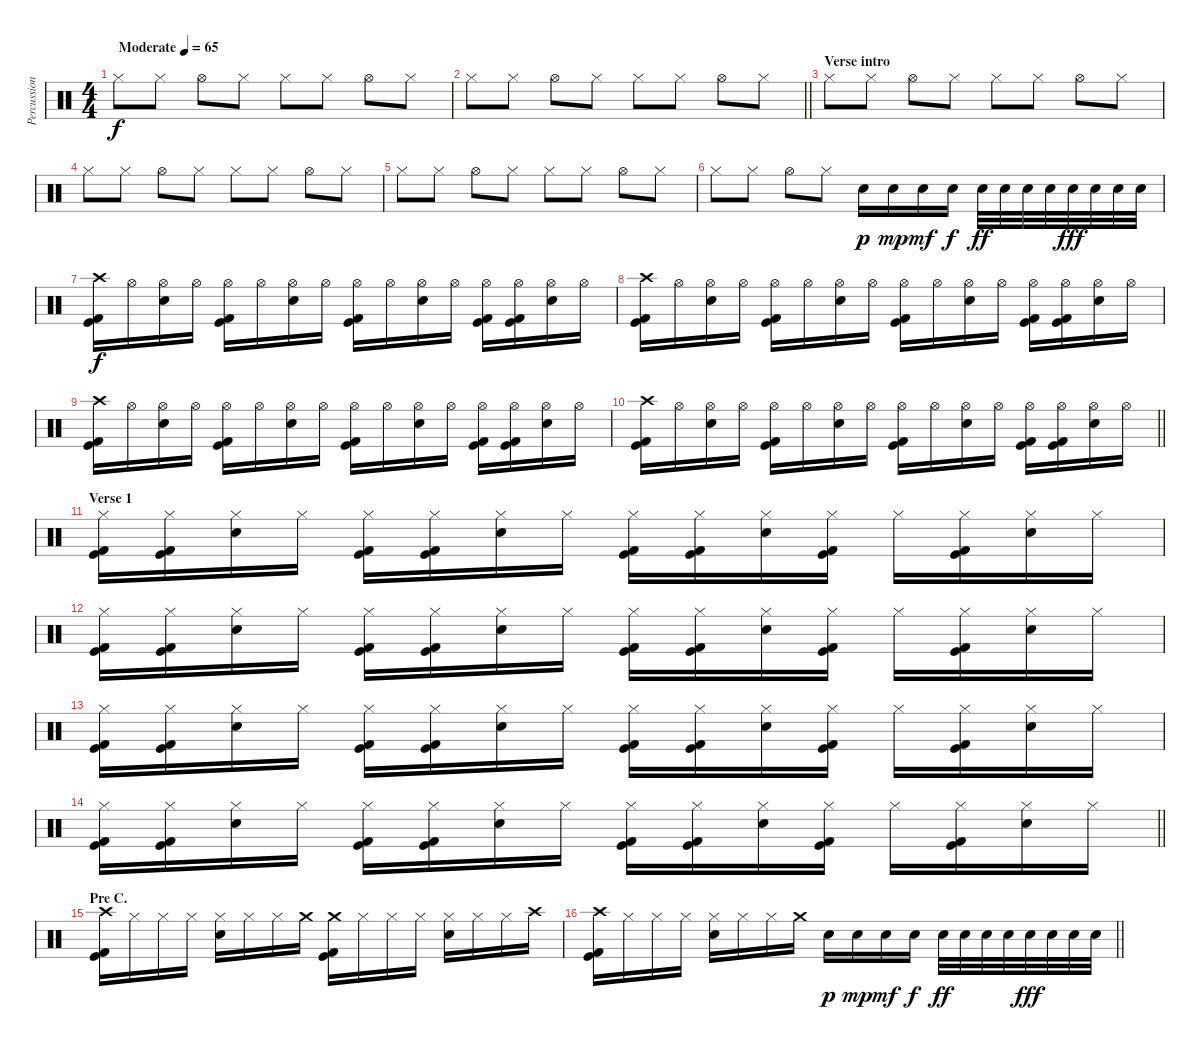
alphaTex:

\track ("Percussioni" "Percussion") {instrument percussion}
\staff {score}
\articulation defaults
\ts (4 4)
\tempo (65 "Moderate")
\clef neutral
\ks c "Hi-Hat (closed)".8{dy f} "Hi-Hat (closed)".8 "Hi-Hat (open)".8 "Hi-Hat (closed)".8 "Hi-Hat (closed)".8 "Hi-Hat (closed)".8 "Hi-Hat (open)".8 "Hi-Hat (closed)".8
|
\barLineRight lightlight "Hi-Hat (closed)".8 "Hi-Hat (closed)".8 "Hi-Hat (open)".8 "Hi-Hat (closed)".8 "Hi-Hat (closed)".8 "Hi-Hat (closed)".8 "Hi-Hat (open)".8 "Hi-Hat (closed)".8
|
\section ("" "Verse intro")
"Hi-Hat (closed)".8 "Hi-Hat (closed)".8 "Hi-Hat (open)".8 "Hi-Hat (closed)".8 "Hi-Hat (closed)".8 "Hi-Hat (closed)".8 "Hi-Hat (open)".8 "Hi-Hat (closed)".8 |
"Hi-Hat (closed)".8 "Hi-Hat (closed)".8 "Hi-Hat (open)".8 "Hi-Hat (closed)".8 "Hi-Hat (closed)".8 "Hi-Hat (closed)".8 "Hi-Hat (open)".8 "Hi-Hat (closed)".8 |
"Hi-Hat (closed)".8 "Hi-Hat (closed)".8 "Hi-Hat (open)".8 "Hi-Hat (closed)".8 "Hi-Hat (closed)".8 "Hi-Hat (closed)".8 "Hi-Hat (open)".8 "Hi-Hat (closed)".8 |
"Hi-Hat (closed)".8 "Hi-Hat (closed)".8 "Hi-Hat (open)".8 "Hi-Hat (closed)".8 "Snare (hit) 2".16{dy p} "Snare (hit) 2".16{dy mp} "Snare (hit) 2".16{dy mf} "Snare (hit) 2".16{dy f} "Snare (hit) 2".32{dy ff} "Snare (hit) 2".32 "Snare (hit) 2".32 "Snare (hit) 2".32 "Snare (hit) 2".32{dy fff} "Snare (hit) 2".32 "Snare (hit) 2".32 "Snare (hit) 2".32 |
("Crash high (hit)" "Kick (hit) 2" "Kick (hit)").16{dy f} "Hi-Hat (open)".16 ("Hi-Hat (open)" "Snare (hit) 2").16 "Hi-Hat (open)".16 ("Hi-Hat (open)" "Kick (hit) 2" "Kick (hit)").16 "Hi-Hat (open)".16 ("Hi-Hat (open)" "Snare (hit) 2").16 "Hi-Hat (open)".16 ("Hi-Hat (open)" "Kick (hit) 2" "Kick (hit)").16 "Hi-Hat (open)".16 ("Hi-Hat (open)" "Snare (hit) 2").16 "Hi-Hat (open)".16 ("Hi-Hat (open)" "Kick (hit) 2" "Kick (hit)").16 ("Hi-Hat (open)" "Kick (hit) 2" "Kick (hit)").16 ("Hi-Hat (open)" "Snare (hit) 2").16 "Hi-Hat (open)".16 |
("Crash high (hit)" "Kick (hit) 2" "Kick (hit)").16 "Hi-Hat (open)".16 ("Hi-Hat (open)" "Snare (hit) 2").16 "Hi-Hat (open)".16 ("Hi-Hat (open)" "Kick (hit) 2" "Kick (hit)").16 "Hi-Hat (open)".16 ("Hi-Hat (open)" "Snare (hit) 2").16 "Hi-Hat (open)".16 ("Hi-Hat (open)" "Kick (hit) 2" "Kick (hit)").16 "Hi-Hat (open)".16 ("Hi-Hat (open)" "Snare (hit) 2").16 "Hi-Hat (open)".16 ("Hi-Hat (open)" "Kick (hit) 2" "Kick (hit)").16 ("Hi-Hat (open)" "Kick (hit) 2" "Kick (hit)").16 ("Hi-Hat (open)" "Snare (hit) 2").16 "Hi-Hat (open)".16 |
("Crash high (hit)" "Kick (hit) 2" "Kick (hit)").16 "Hi-Hat (open)".16 ("Hi-Hat (open)" "Snare (hit) 2").16 "Hi-Hat (open)".16 ("Hi-Hat (open)" "Kick (hit) 2" "Kick (hit)").16 "Hi-Hat (open)".16 ("Hi-Hat (open)" "Snare (hit) 2").16 "Hi-Hat (open)".16 ("Hi-Hat (open)" "Kick (hit) 2" "Kick (hit)").16 "Hi-Hat (open)".16 ("Hi-Hat (open)" "Snare (hit) 2").16 "Hi-Hat (open)".16 ("Hi-Hat (open)" "Kick (hit) 2" "Kick (hit)").16 ("Hi-Hat (open)" "Kick (hit) 2" "Kick (hit)").16 ("Hi-Hat (open)" "Snare (hit) 2").16 "Hi-Hat (open)".16 |
\barLineRight lightlight
("Crash high (hit)" "Kick (hit) 2" "Kick (hit)").16 "Hi-Hat (open)".16 ("Hi-Hat (open)" "Snare (hit) 2").16 "Hi-Hat (open)".16 ("Hi-Hat (open)" "Kick (hit) 2" "Kick (hit)").16 "Hi-Hat (open)".16 ("Hi-Hat (open)" "Snare (hit) 2").16 "Hi-Hat (open)".16 ("Hi-Hat (open)" "Kick (hit) 2" "Kick (hit)").16 "Hi-Hat (open)".16 ("Hi-Hat (open)" "Snare (hit) 2").16 "Hi-Hat (open)".16 ("Hi-Hat (open)" "Kick (hit) 2" "Kick (hit)").16 ("Hi-Hat (open)" "Kick (hit) 2" "Kick (hit)").16 ("Hi-Hat (open)" "Snare (hit) 2").16 "Hi-Hat (open)".16 |
\section ("" "Verse 1")
("Hi-Hat (closed)" "Kick (hit) 2" "Kick (hit)").16 ("Hi-Hat (closed)" "Kick (hit) 2" "Kick (hit)").16 ("Hi-Hat (closed)" "Snare (hit) 2").16 "Hi-Hat (closed)".16 ("Hi-Hat (closed)" "Kick (hit) 2" "Kick (hit)").16 ("Hi-Hat (closed)" "Kick (hit) 2" "Kick (hit)").16 ("Hi-Hat (closed)" "Snare (hit) 2").16 "Hi-Hat (closed)".16 ("Hi-Hat (closed)" "Kick (hit) 2" "Kick (hit)").16 ("Hi-Hat (closed)" "Kick (hit) 2" "Kick (hit)").16 ("Hi-Hat (closed)" "Snare (hit) 2").16 ("Hi-Hat (closed)" "Kick (hit) 2" "Kick (hit)").16 "Hi-Hat (closed)".16 ("Hi-Hat (closed)" "Kick (hit) 2" "Kick (hit)").16 ("Hi-Hat (closed)" "Snare (hit) 2").16 "Hi-Hat (closed)".16 |
("Hi-Hat (closed)" "Kick (hit) 2" "Kick (hit)").16 ("Hi-Hat (closed)" "Kick (hit) 2" "Kick (hit)").16 ("Hi-Hat (closed)" "Snare (hit) 2").16 "Hi-Hat (closed)".16 ("Hi-Hat (closed)" "Kick (hit) 2" "Kick (hit)").16 ("Hi-Hat (closed)" "Kick (hit) 2" "Kick (hit)").16 ("Hi-Hat (closed)" "Snare (hit) 2").16 "Hi-Hat (closed)".16 ("Hi-Hat (closed)" "Kick (hit) 2" "Kick (hit)").16 ("Hi-Hat (closed)" "Kick (hit) 2" "Kick (hit)").16 ("Hi-Hat (closed)" "Snare (hit) 2").16 ("Hi-Hat (closed)" "Kick (hit) 2" "Kick (hit)").16 "Hi-Hat (closed)".16 ("Hi-Hat (closed)" "Kick (hit) 2" "Kick (hit)").16 ("Hi-Hat (closed)" "Snare (hit) 2").16 "Hi-Hat (closed)".16 |
("Hi-Hat (closed)" "Kick (hit) 2" "Kick (hit)").16 ("Hi-Hat (closed)" "Kick (hit) 2" "Kick (hit)").16 ("Hi-Hat (closed)" "Snare (hit) 2").16 "Hi-Hat (closed)".16 ("Hi-Hat (closed)" "Kick (hit) 2" "Kick (hit)").16 ("Hi-Hat (closed)" "Kick (hit) 2" "Kick (hit)").16 ("Hi-Hat (closed)" "Snare (hit) 2").16 "Hi-Hat (closed)".16 ("Hi-Hat (closed)" "Kick (hit) 2" "Kick (hit)").16 ("Hi-Hat (closed)" "Kick (hit) 2" "Kick (hit)").16 ("Hi-Hat (closed)" "Snare (hit) 2").16 ("Hi-Hat (closed)" "Kick (hit) 2" "Kick (hit)").16 "Hi-Hat (closed)".16 ("Hi-Hat (closed)" "Kick (hit) 2" "Kick (hit)").16 ("Hi-Hat (closed)" "Snare (hit) 2").16 "Hi-Hat (closed)".16 |
\barLineRight lightlight
("Hi-Hat (closed)" "Kick (hit) 2" "Kick (hit)").16 ("Hi-Hat (closed)" "Kick (hit) 2" "Kick (hit)").16 ("Hi-Hat (closed)" "Snare (hit) 2").16 "Hi-Hat (closed)".16 ("Hi-Hat (closed)" "Kick (hit) 2" "Kick (hit)").16 ("Hi-Hat (closed)" "Kick (hit) 2" "Kick (hit)").16 ("Hi-Hat (closed)" "Snare (hit) 2").16 "Hi-Hat (closed)".16 ("Hi-Hat (closed)" "Kick (hit) 2" "Kick (hit)").16 ("Hi-Hat (closed)" "Kick (hit) 2" "Kick (hit)").16 ("Hi-Hat (closed)" "Snare (hit) 2").16 ("Hi-Hat (closed)" "Kick (hit) 2" "Kick (hit)").16 "Hi-Hat (closed)".16 ("Hi-Hat (closed)" "Kick (hit) 2" "Kick (hit)").16 ("Hi-Hat (closed)" "Snare (hit) 2").16 "Hi-Hat (closed)".16 |
\section ("" "Pre C.")
("Crash high (hit)" "Kick (hit) 2" "Kick (hit)").16 "Hi-Hat (closed)".16 "Hi-Hat (closed)".16 "Hi-Hat (closed)".16 ("Hi-Hat (closed)" "Snare (hit) 2").16 "Hi-Hat (closed)".16 "Hi-Hat (closed)".16 "Crash medium (hit)".16 ("Crash medium (hit)" "Kick (hit) 2" "Kick (hit)").16 "Hi-Hat (closed)".16 "Hi-Hat (closed)".16 "Hi-Hat (closed)".16 ("Hi-Hat (closed)" "Snare (hit) 2").16 "Hi-Hat (closed)".16 "Hi-Hat (closed)".16 "Crash high (hit)".16 |
\barLineRight lightlight
("Crash high (hit)" "Kick (hit) 2" "Kick (hit)").16 "Hi-Hat (closed)".16 "Hi-Hat (closed)".16 "Hi-Hat (closed)".16 ("Hi-Hat (closed)" "Snare (hit) 2").16 "Hi-Hat (closed)".16 "Hi-Hat (closed)".16 "Crash medium (hit)".16 "Snare (hit) 2".16{dy p} "Snare (hit) 2".16{dy mp} "Snare (hit) 2".16{dy mf} "Snare (hit) 2".16{dy f} "Snare (hit) 2".32{dy ff} "Snare (hit) 2".32 "Snare (hit) 2".32 "Snare (hit) 2".32 "Snare (hit) 2".32{dy fff} "Snare (hit) 2".32 "Snare (hit) 2".32 "Snare (hit) 2".32
